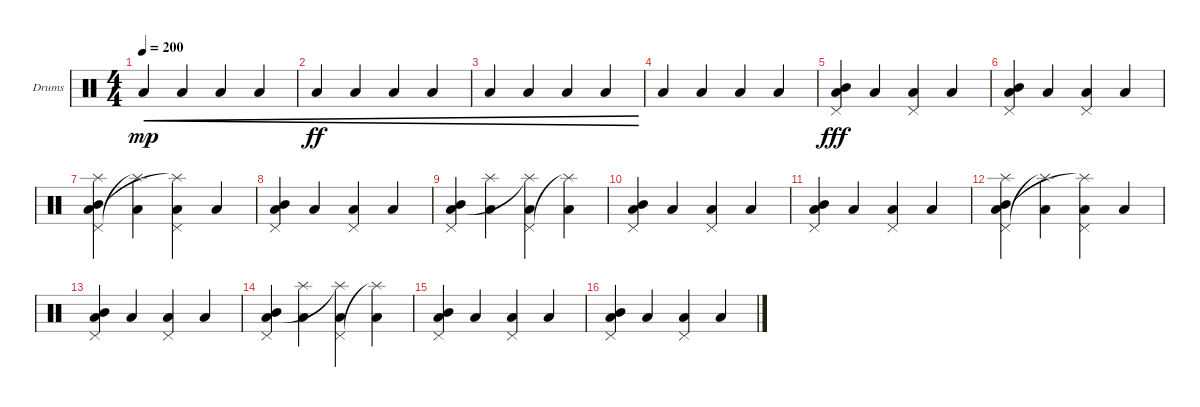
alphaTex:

\defaultSystemsLayout 4
\bracketExtendMode groupsimilarinstruments
\firstSystemTrackNameOrientation horizontal
\otherSystemsTrackNameOrientation horizontal
\track ("Drumkit" "Drums") {instrument percussion}
\staff {score}
\articulation defaults
\ts (4 4)
\tempo 200
\clef neutral
\ks c "Low Tom (hit)".4{cre dy mp} "Low Tom (hit)".4{cre} "Low Tom (hit)".4{cre} "Low Tom (hit)".4{cre}
|
"Low Tom (hit)".4{cre dy ff} "Low Tom (hit)".4{cre} "Low Tom (hit)".4{cre} "Low Tom (hit)".4{cre} |
"Low Tom (hit)".4{cre} "Low Tom (hit)".4{cre} "Low Tom (hit)".4{cre} "Low Tom (hit)".4{cre} |
"Low Tom (hit)".4 "Low Tom (hit)".4 "Low Tom (hit)".4 "Low Tom (hit)".4 |
("Mid Tom (hit)" "Pedal Hi-Hat (hit)" "Low Tom (hit)").4{dy fff} "Low Tom (hit)".4 ("Low Tom (hit)" "Pedal Hi-Hat (hit)").4 "Low Tom (hit)".4 |
("Mid Tom (hit)" "Pedal Hi-Hat (hit)" "Low Tom (hit)").4 "Low Tom (hit)".4 ("Low Tom (hit)" "Pedal Hi-Hat (hit)").4 "Low Tom (hit)".4 |
("Mid Tom (hit)" "Pedal Hi-Hat (hit)" "Low Tom (hit)" "Splash (hit)").4 ("Low Tom (hit)" "Splash (hit)"{t}).4 ("Low Tom (hit)" "Pedal Hi-Hat (hit)" "Splash (hit)"{t}).4 "Low Tom (hit)".4 |
("Mid Tom (hit)" "Pedal Hi-Hat (hit)" "Low Tom (hit)").4 "Low Tom (hit)".4 ("Low Tom (hit)" "Pedal Hi-Hat (hit)").4 "Low Tom (hit)".4 |
("Mid Tom (hit)" "Pedal Hi-Hat (hit)" "Low Tom (hit)").4 ("Low Tom (hit)" "Splash (hit)").4 ("Low Tom (hit)" "Pedal Hi-Hat (hit)" "Splash (hit)"{t}).4 ("Low Tom (hit)" "Splash (hit)"{t}).4 |
("Mid Tom (hit)" "Pedal Hi-Hat (hit)" "Low Tom (hit)").4 "Low Tom (hit)".4 ("Low Tom (hit)" "Pedal Hi-Hat (hit)").4 "Low Tom (hit)".4 |
("Mid Tom (hit)" "Pedal Hi-Hat (hit)" "Low Tom (hit)").4 "Low Tom (hit)".4 ("Low Tom (hit)" "Pedal Hi-Hat (hit)").4 "Low Tom (hit)".4 |
("Mid Tom (hit)" "Pedal Hi-Hat (hit)" "Low Tom (hit)" "Splash (hit)").4 ("Low Tom (hit)" "Splash (hit)"{t}).4 ("Low Tom (hit)" "Pedal Hi-Hat (hit)" "Splash (hit)"{t}).4 "Low Tom (hit)".4 |
("Mid Tom (hit)" "Pedal Hi-Hat (hit)" "Low Tom (hit)").4 "Low Tom (hit)".4 ("Low Tom (hit)" "Pedal Hi-Hat (hit)").4 "Low Tom (hit)".4 |
("Mid Tom (hit)" "Pedal Hi-Hat (hit)" "Low Tom (hit)").4 ("Low Tom (hit)" "Splash (hit)").4 ("Low Tom (hit)" "Pedal Hi-Hat (hit)" "Splash (hit)"{t}).4 ("Low Tom (hit)" "Splash (hit)"{t}).4 |
("Mid Tom (hit)" "Pedal Hi-Hat (hit)" "Low Tom (hit)").4 "Low Tom (hit)".4 ("Low Tom (hit)" "Pedal Hi-Hat (hit)").4 "Low Tom (hit)".4 |
("Mid Tom (hit)" "Pedal Hi-Hat (hit)" "Low Tom (hit)").4 "Low Tom (hit)".4 ("Low Tom (hit)" "Pedal Hi-Hat (hit)").4 "Low Tom (hit)".4
